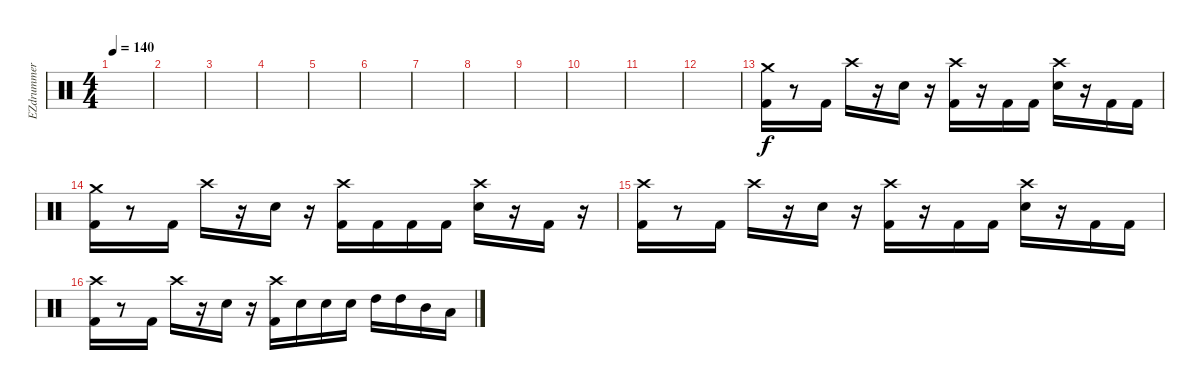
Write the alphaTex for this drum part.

\track ("EZdrummer" "EZdrummer") {instrument percussion}
\staff {score}
\articulation defaults
\ts (4 4)
\tempo 140
\clef neutral
\ks c
|
|
|
|
|
|
|
|
|
|
|
|
("Kick (hit) 2" "Crash medium (hit)").16 r.8 "Kick (hit) 2".16 "Crash high (hit)".16 r.16 "Snare (hit) 2".16 r.16 ("Kick (hit) 2" "Crash high (hit)").16 r.16 "Kick (hit) 2".16 "Kick (hit) 2".16 ("Snare (hit) 2" "Crash high (hit)").16 r.16 "Kick (hit) 2".16 "Kick (hit) 2".16 |
("Kick (hit) 2" "Crash medium (hit)").16 r.8 "Kick (hit) 2".16 "Crash high (hit)".16 r.16 "Snare (hit) 2".16 r.16 ("Kick (hit) 2" "Crash high (hit)").16 "Kick (hit) 2".16 "Kick (hit) 2".16 "Kick (hit) 2".16 ("Snare (hit) 2" "Crash high (hit)").16 r.16 "Kick (hit) 2".16 r.16 |
("Kick (hit) 2" "Crash high (hit)").16 r.8 "Kick (hit) 2".16 "Crash high (hit)".16 r.16 "Snare (hit) 2".16 r.16 ("Kick (hit) 2" "Crash high (hit)").16 r.16 "Kick (hit) 2".16 "Kick (hit) 2".16 ("Snare (hit) 2" "Crash high (hit)").16 r.16 "Kick (hit) 2".16 "Kick (hit) 2".16 |
("Crash high (hit)" "Kick (hit) 2").16 r.8 "Kick (hit) 2".16 "Crash high (hit)".16 r.16 "Snare (hit) 2".16 r.16 ("Kick (hit) 2" "Crash high (hit)").16 "Snare (hit) 2".16 "Snare (hit) 2".16 "Snare (hit) 2".16 "High Tom (hit)".16 "High Tom (hit)".16 "Mid Tom (hit)".16 "Low Tom (hit)".16
